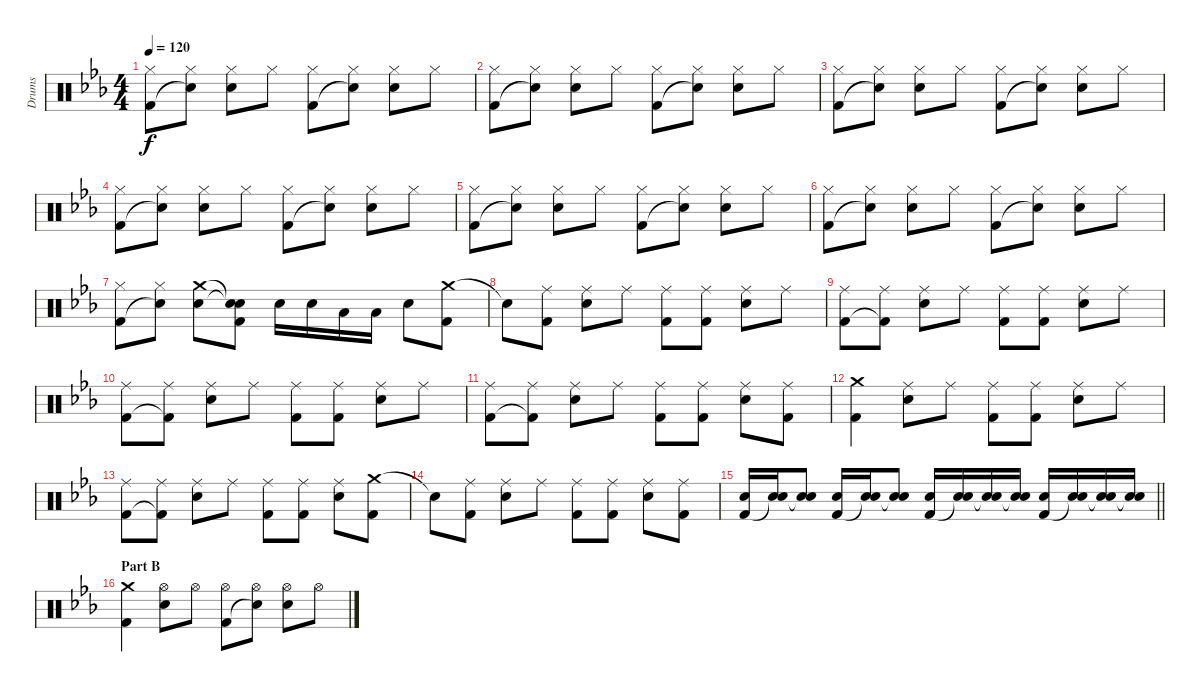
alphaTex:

\track ("Drums" "Drums") {instrument percussion}
\staff {score}
\articulation defaults
\ts (4 4)
\tempo 120
\clef neutral
\ks eb
("Hi-Hat (closed)" "Kick (hit) 2").8{dy f} ("Hi-Hat (closed)" "Snare (hit)"{t}).8 ("Hi-Hat (closed)" "Electric Snare (hit)").8 "Hi-Hat (closed)".8 ("Hi-Hat (closed)" "Kick (hit) 2").8 ("Hi-Hat (closed)" "Snare (hit)"{t}).8 ("Hi-Hat (closed)" "Electric Snare (hit)").8 "Hi-Hat (closed)".8 |
("Hi-Hat (closed)" "Kick (hit) 2").8 ("Hi-Hat (closed)" "Snare (hit)"{t}).8 ("Hi-Hat (closed)" "Electric Snare (hit)").8 "Hi-Hat (closed)".8 ("Hi-Hat (closed)" "Kick (hit) 2").8 ("Hi-Hat (closed)" "Snare (hit)"{t}).8 ("Hi-Hat (closed)" "Electric Snare (hit)").8 "Hi-Hat (closed)".8 |
("Hi-Hat (closed)" "Kick (hit) 2").8 ("Hi-Hat (closed)" "Snare (hit)"{t}).8 ("Hi-Hat (closed)" "Electric Snare (hit)").8 "Hi-Hat (closed)".8 ("Hi-Hat (closed)" "Kick (hit) 2").8 ("Hi-Hat (closed)" "Snare (hit)"{t}).8 ("Hi-Hat (closed)" "Electric Snare (hit)").8 "Hi-Hat (closed)".8 |
("Hi-Hat (closed)" "Kick (hit) 2").8 ("Hi-Hat (closed)" "Snare (hit)"{t}).8 ("Hi-Hat (closed)" "Electric Snare (hit)").8 "Hi-Hat (closed)".8 ("Hi-Hat (closed)" "Kick (hit) 2").8 ("Hi-Hat (closed)" "Snare (hit)"{t}).8 ("Hi-Hat (closed)" "Electric Snare (hit)").8 "Hi-Hat (closed)".8 |
("Hi-Hat (closed)" "Kick (hit) 2").8 ("Hi-Hat (closed)" "Snare (hit)"{t}).8 ("Hi-Hat (closed)" "Electric Snare (hit)").8 "Hi-Hat (closed)".8 ("Hi-Hat (closed)" "Kick (hit) 2").8 ("Hi-Hat (closed)" "Snare (hit)"{t}).8 ("Hi-Hat (closed)" "Electric Snare (hit)").8 "Hi-Hat (closed)".8 |
("Hi-Hat (closed)" "Kick (hit) 2").8 ("Hi-Hat (closed)" "Snare (hit)"{t}).8 ("Hi-Hat (closed)" "Electric Snare (hit)").8 "Hi-Hat (closed)".8 ("Hi-Hat (closed)" "Kick (hit) 2").8 ("Hi-Hat (closed)" "Snare (hit)"{t}).8 ("Hi-Hat (closed)" "Electric Snare (hit)").8 "Hi-Hat (closed)".8 |
("Hi-Hat (closed)" "Kick (hit) 2").8 ("Hi-Hat (closed)" "Snare (hit)"{t}).8 ("Crash medium (hit)" "Electric Snare (hit)").8 ("Snare (hit)"{t} "Snare (hit)"{t} "Kick (hit) 2").8 "Electric Snare (hit)".16 "Electric Snare (hit)".16 "Low Tom (hit)".16 "Low Floor Tom (hit)".16 "Electric Snare (hit)".8 ("Crash medium (hit)" "Kick (hit) 2").8 |
"Snare (hit)"{t}.8 ("Ride (middle)" "Kick (hit) 2").8 ("Ride (middle)" "Electric Snare (hit)").8 "Ride (middle)".8 ("Ride (middle)" "Kick (hit) 2").8 ("Ride (middle)" "Kick (hit) 2").8 ("Ride (middle)" "Electric Snare (hit)").8 "Ride (middle)".8 |
("Ride (middle)" "Kick (hit) 2").8 ("Ride (middle)" "Kick (hit) 2"{t}).8 ("Ride (middle)" "Electric Snare (hit)").8 "Ride (middle)".8 ("Ride (middle)" "Kick (hit) 2").8 ("Ride (middle)" "Kick (hit) 2").8 ("Ride (middle)" "Electric Snare (hit)").8 "Ride (middle)".8 |
("Ride (middle)" "Kick (hit) 2").8 ("Ride (middle)" "Kick (hit) 2"{t}).8 ("Ride (middle)" "Electric Snare (hit)").8 "Ride (middle)".8 ("Ride (middle)" "Kick (hit) 2").8 ("Ride (middle)" "Kick (hit) 2").8 ("Ride (middle)" "Electric Snare (hit)").8 "Ride (middle)".8 |
("Ride (middle)" "Kick (hit) 2").8 ("Ride (middle)" "Kick (hit) 2"{t}).8 ("Ride (middle)" "Electric Snare (hit)").8 "Ride (middle)".8 ("Ride (middle)" "Kick (hit) 2").8 ("Ride (middle)" "Kick (hit) 2").8 ("Ride (middle)" "Electric Snare (hit)").8 ("Ride (middle)" "Kick (hit) 2").8 |
("Crash medium (hit)" "Kick (hit) 2").4 ("Ride (middle)" "Electric Snare (hit)").8 "Ride (middle)".8 ("Ride (middle)" "Kick (hit) 2").8 ("Ride (middle)" "Kick (hit) 2").8 ("Ride (middle)" "Electric Snare (hit)").8 "Ride (middle)".8 |
("Ride (middle)" "Kick (hit) 2").8 ("Ride (middle)" "Kick (hit) 2"{t}).8 ("Ride (middle)" "Electric Snare (hit)").8 "Ride (middle)".8 ("Ride (middle)" "Kick (hit) 2").8 ("Ride (middle)" "Kick (hit) 2").8 ("Ride (middle)" "Electric Snare (hit)").8 ("Crash medium (hit)" "Kick (hit) 2").8 |
"Snare (hit)"{t}.8 ("Ride (middle)" "Kick (hit) 2").8 ("Ride (middle)" "Electric Snare (hit)").8 "Ride (middle)".8 ("Ride (middle)" "Kick (hit) 2").8 ("Ride (middle)" "Kick (hit) 2").8 ("Ride (middle)" "Electric Snare (hit)").8 ("Ride (middle)" "Kick (hit) 2").8 |
\barLineRight lightlight
("Electric Snare (hit)" "Kick (hit) 2").16 ("Electric Snare (hit)" "Snare (hit)"{t}).16 ("Electric Snare (hit)" "Snare (hit)"{t}).8 ("Electric Snare (hit)" "Kick (hit) 2").16 ("Electric Snare (hit)" "Snare (hit)"{t}).16 ("Electric Snare (hit)" "Snare (hit)"{t}).8 ("Electric Snare (hit)" "Kick (hit) 2").16 ("Electric Snare (hit)" "Snare (hit)"{t}).16 ("Electric Snare (hit)" "Snare (hit)"{t}).16 ("Electric Snare (hit)" "Snare (hit)"{t}).16 ("Electric Snare (hit)" "Kick (hit) 2").16 ("Electric Snare (hit)" "Snare (hit)"{t}).16 ("Electric Snare (hit)" "Snare (hit)"{t}).16 ("Electric Snare (hit)" "Snare (hit)"{t}).16 |
\section ("" "Part B")
("Crash medium (hit)" "Kick (hit) 2").4 ("Hi-Hat (open)" "Electric Snare (hit)").8 "Hi-Hat (open)".8 ("Hi-Hat (open)" "Kick (hit) 2").8 ("Hi-Hat (open)" "Snare (hit)"{t}).8 ("Hi-Hat (open)" "Electric Snare (hit)").8 "Hi-Hat (open)".8
